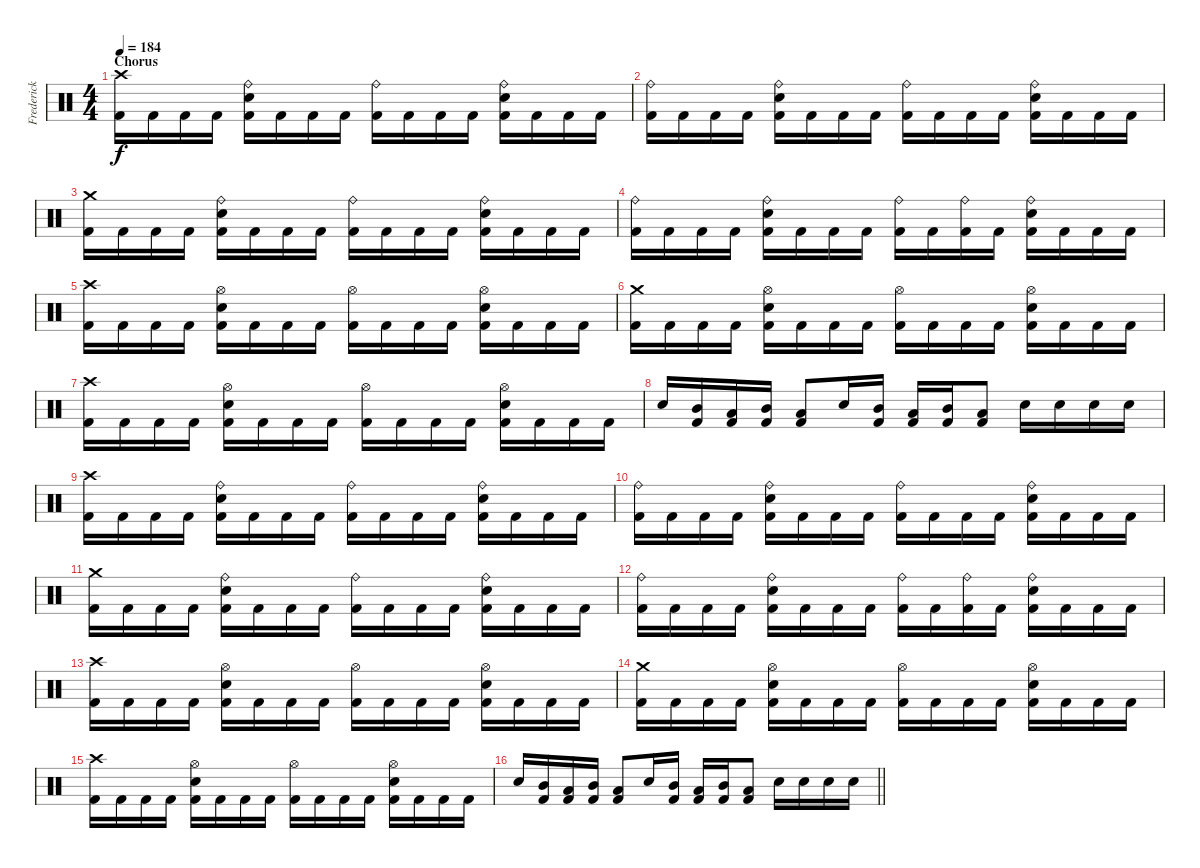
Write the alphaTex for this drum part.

\track ("Frederick Ehmke" "Frederick ") {instrument percussion}
\staff {score}
\articulation defaults
\ts (4 4)
\section ("" "Chorus")
\tempo 184
\clef neutral
\ks c
("Kick (hit) 2" "Crash high (hit)").16{dy f} "Kick (hit) 2".16 "Kick (hit) 2".16 "Kick (hit) 2".16 ("Electric Snare (hit)" "Kick (hit) 2" "Ride (bell)").16 "Kick (hit) 2".16 "Kick (hit) 2".16 "Kick (hit) 2".16 ("Kick (hit) 2" "Ride (bell)").16 "Kick (hit) 2".16 "Kick (hit) 2".16 "Kick (hit) 2".16 ("Electric Snare (hit)" "Kick (hit) 2" "Ride (bell)").16 "Kick (hit) 2".16 "Kick (hit) 2".16 "Kick (hit) 2".16 |
("Kick (hit) 2" "Ride (bell)").16 "Kick (hit) 2".16 "Kick (hit) 2".16 "Kick (hit) 2".16 ("Electric Snare (hit)" "Kick (hit) 2" "Ride (bell)").16 "Kick (hit) 2".16 "Kick (hit) 2".16 "Kick (hit) 2".16 ("Kick (hit) 2" "Ride (bell)").16 "Kick (hit) 2".16 "Kick (hit) 2".16 "Kick (hit) 2".16 ("Electric Snare (hit)" "Kick (hit) 2" "Ride (bell)").16 "Kick (hit) 2".16 "Kick (hit) 2".16 "Kick (hit) 2".16 |
("Kick (hit) 2" "Crash medium (hit)").16 "Kick (hit) 2".16 "Kick (hit) 2".16 "Kick (hit) 2".16 ("Electric Snare (hit)" "Kick (hit) 2" "Ride (bell)").16 "Kick (hit) 2".16 "Kick (hit) 2".16 "Kick (hit) 2".16 ("Kick (hit) 2" "Ride (bell)").16 "Kick (hit) 2".16 "Kick (hit) 2".16 "Kick (hit) 2".16 ("Electric Snare (hit)" "Kick (hit) 2" "Ride (bell)").16 "Kick (hit) 2".16 "Kick (hit) 2".16 "Kick (hit) 2".16 |
("Kick (hit) 2" "Ride (bell)").16 "Kick (hit) 2".16 "Kick (hit) 2".16 "Kick (hit) 2".16 ("Electric Snare (hit)" "Kick (hit) 2" "Ride (bell)").16 "Kick (hit) 2".16 "Kick (hit) 2".16 "Kick (hit) 2".16 ("Kick (hit) 2" "Ride (bell)").16 "Kick (hit) 2".16 ("Kick (hit) 2" "Ride (bell)").16 "Kick (hit) 2".16 ("Electric Snare (hit)" "Kick (hit) 2" "Ride (bell)").16 "Kick (hit) 2".16 "Kick (hit) 2".16 "Kick (hit) 2".16 |
("Kick (hit) 2" "Crash high (hit)").16 "Kick (hit) 2".16 "Kick (hit) 2".16 "Kick (hit) 2".16 ("Electric Snare (hit)" "Kick (hit) 2" "Hi-Hat (open)").16 "Kick (hit) 2".16 "Kick (hit) 2".16 "Kick (hit) 2".16 ("Kick (hit) 2" "Hi-Hat (open)").16 "Kick (hit) 2".16 "Kick (hit) 2".16 "Kick (hit) 2".16 ("Electric Snare (hit)" "Kick (hit) 2" "Hi-Hat (open)").16 "Kick (hit) 2".16 "Kick (hit) 2".16 "Kick (hit) 2".16 |
("Kick (hit) 2" "Crash medium (hit)").16 "Kick (hit) 2".16 "Kick (hit) 2".16 "Kick (hit) 2".16 ("Electric Snare (hit)" "Kick (hit) 2" "Hi-Hat (open)").16 "Kick (hit) 2".16 "Kick (hit) 2".16 "Kick (hit) 2".16 ("Kick (hit) 2" "Hi-Hat (open)").16 "Kick (hit) 2".16 "Kick (hit) 2".16 "Kick (hit) 2".16 ("Electric Snare (hit)" "Kick (hit) 2" "Hi-Hat (open)").16 "Kick (hit) 2".16 "Kick (hit) 2".16 "Kick (hit) 2".16 |
("Kick (hit) 2" "Crash high (hit)").16 "Kick (hit) 2".16 "Kick (hit) 2".16 "Kick (hit) 2".16 ("Electric Snare (hit)" "Kick (hit) 2" "Hi-Hat (open)").16 "Kick (hit) 2".16 "Kick (hit) 2".16 "Kick (hit) 2".16 ("Kick (hit) 2" "Hi-Hat (open)").16 "Kick (hit) 2".16 "Kick (hit) 2".16 "Kick (hit) 2".16 ("Electric Snare (hit)" "Kick (hit) 2" "Hi-Hat (open)").16 "Kick (hit) 2".16 "Kick (hit) 2".16 "Kick (hit) 2".16 |
"Electric Snare (hit)".16 ("Kick (hit) 2" "Mid Tom (hit)").16 ("Kick (hit) 2" "Low Floor Tom (hit)").16 ("Kick (hit) 2" "Mid Tom (hit)").16 ("Kick (hit) 2" "Low Floor Tom (hit)").8 "Electric Snare (hit)".16 ("Kick (hit) 2" "Mid Tom (hit)").16 ("Kick (hit) 2" "Low Floor Tom (hit)").16 ("Kick (hit) 2" "Mid Tom (hit)").16 ("Kick (hit) 2" "Low Floor Tom (hit)").8 "Electric Snare (hit)".16 "Electric Snare (hit)".16 "Electric Snare (hit)".16 "Electric Snare (hit)".16 |
("Kick (hit) 2" "Crash high (hit)").16 "Kick (hit) 2".16 "Kick (hit) 2".16 "Kick (hit) 2".16 ("Electric Snare (hit)" "Kick (hit) 2" "Ride (bell)").16 "Kick (hit) 2".16 "Kick (hit) 2".16 "Kick (hit) 2".16 ("Kick (hit) 2" "Ride (bell)").16 "Kick (hit) 2".16 "Kick (hit) 2".16 "Kick (hit) 2".16 ("Electric Snare (hit)" "Kick (hit) 2" "Ride (bell)").16 "Kick (hit) 2".16 "Kick (hit) 2".16 "Kick (hit) 2".16 |
("Kick (hit) 2" "Ride (bell)").16 "Kick (hit) 2".16 "Kick (hit) 2".16 "Kick (hit) 2".16 ("Electric Snare (hit)" "Kick (hit) 2" "Ride (bell)").16 "Kick (hit) 2".16 "Kick (hit) 2".16 "Kick (hit) 2".16 ("Kick (hit) 2" "Ride (bell)").16 "Kick (hit) 2".16 "Kick (hit) 2".16 "Kick (hit) 2".16 ("Electric Snare (hit)" "Kick (hit) 2" "Ride (bell)").16 "Kick (hit) 2".16 "Kick (hit) 2".16 "Kick (hit) 2".16 |
("Kick (hit) 2" "Crash medium (hit)").16 "Kick (hit) 2".16 "Kick (hit) 2".16 "Kick (hit) 2".16 ("Electric Snare (hit)" "Kick (hit) 2" "Ride (bell)").16 "Kick (hit) 2".16 "Kick (hit) 2".16 "Kick (hit) 2".16 ("Kick (hit) 2" "Ride (bell)").16 "Kick (hit) 2".16 "Kick (hit) 2".16 "Kick (hit) 2".16 ("Electric Snare (hit)" "Kick (hit) 2" "Ride (bell)").16 "Kick (hit) 2".16 "Kick (hit) 2".16 "Kick (hit) 2".16 |
("Kick (hit) 2" "Ride (bell)").16 "Kick (hit) 2".16 "Kick (hit) 2".16 "Kick (hit) 2".16 ("Electric Snare (hit)" "Kick (hit) 2" "Ride (bell)").16 "Kick (hit) 2".16 "Kick (hit) 2".16 "Kick (hit) 2".16 ("Kick (hit) 2" "Ride (bell)").16 "Kick (hit) 2".16 ("Kick (hit) 2" "Ride (bell)").16 "Kick (hit) 2".16 ("Electric Snare (hit)" "Kick (hit) 2" "Ride (bell)").16 "Kick (hit) 2".16 "Kick (hit) 2".16 "Kick (hit) 2".16 |
("Kick (hit) 2" "Crash high (hit)").16 "Kick (hit) 2".16 "Kick (hit) 2".16 "Kick (hit) 2".16 ("Electric Snare (hit)" "Kick (hit) 2" "Hi-Hat (open)").16 "Kick (hit) 2".16 "Kick (hit) 2".16 "Kick (hit) 2".16 ("Kick (hit) 2" "Hi-Hat (open)").16 "Kick (hit) 2".16 "Kick (hit) 2".16 "Kick (hit) 2".16 ("Electric Snare (hit)" "Kick (hit) 2" "Hi-Hat (open)").16 "Kick (hit) 2".16 "Kick (hit) 2".16 "Kick (hit) 2".16 |
("Kick (hit) 2" "Crash medium (hit)").16 "Kick (hit) 2".16 "Kick (hit) 2".16 "Kick (hit) 2".16 ("Electric Snare (hit)" "Kick (hit) 2" "Hi-Hat (open)").16 "Kick (hit) 2".16 "Kick (hit) 2".16 "Kick (hit) 2".16 ("Kick (hit) 2" "Hi-Hat (open)").16 "Kick (hit) 2".16 "Kick (hit) 2".16 "Kick (hit) 2".16 ("Electric Snare (hit)" "Kick (hit) 2" "Hi-Hat (open)").16 "Kick (hit) 2".16 "Kick (hit) 2".16 "Kick (hit) 2".16 |
("Kick (hit) 2" "Crash high (hit)").16 "Kick (hit) 2".16 "Kick (hit) 2".16 "Kick (hit) 2".16 ("Electric Snare (hit)" "Kick (hit) 2" "Hi-Hat (open)").16 "Kick (hit) 2".16 "Kick (hit) 2".16 "Kick (hit) 2".16 ("Kick (hit) 2" "Hi-Hat (open)").16 "Kick (hit) 2".16 "Kick (hit) 2".16 "Kick (hit) 2".16 ("Electric Snare (hit)" "Kick (hit) 2" "Hi-Hat (open)").16 "Kick (hit) 2".16 "Kick (hit) 2".16 "Kick (hit) 2".16 |
\barLineRight lightlight "Electric Snare (hit)".16
("Kick (hit) 2" "Mid Tom (hit)").16 ("Kick (hit) 2" "Low Floor Tom (hit)").16 ("Kick (hit) 2" "Mid Tom (hit)").16 ("Kick (hit) 2" "Low Floor Tom (hit)").8 "Electric Snare (hit)".16 ("Kick (hit) 2" "Mid Tom (hit)").16 ("Kick (hit) 2" "Low Floor Tom (hit)").16 ("Kick (hit) 2" "Mid Tom (hit)").16 ("Kick (hit) 2" "Low Floor Tom (hit)").8 "Electric Snare (hit)".16 "Electric Snare (hit)".16 "Electric Snare (hit)".16 "Electric Snare (hit)".16
